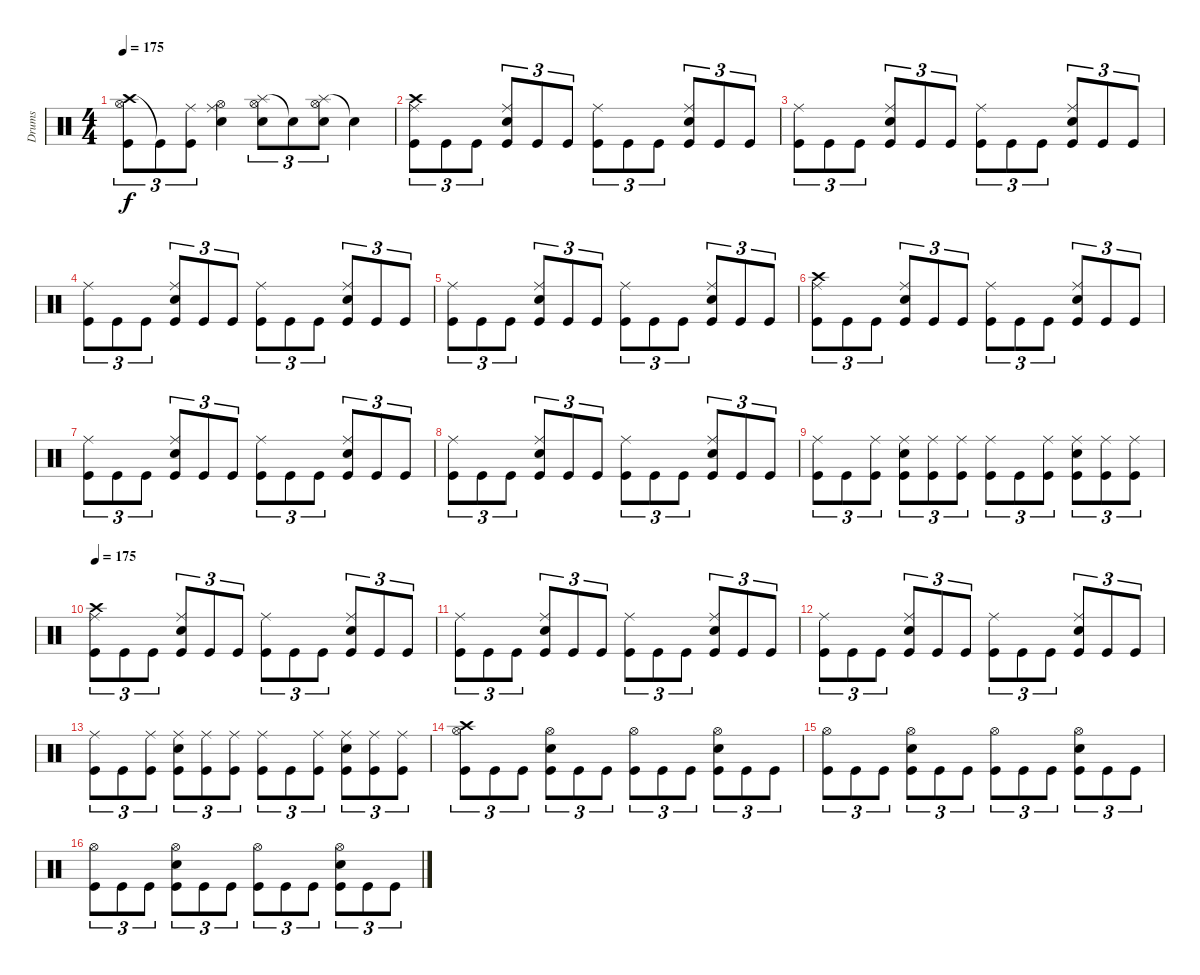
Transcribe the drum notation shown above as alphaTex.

\track ("Drums" "Drums") {instrument percussion}
\staff {score}
\articulation defaults
\ts (4 4)
\tempo 175
\clef neutral
\ks c
("Crash high (hit)" "Hi-Hat (open)" "Kick (hit)").8{tu (3 2) dy f} "Kick (hit)"{t}.8{tu (3 2)} ("Ride (middle)" "Kick (hit)").8{tu (3 2)} ("Ride (middle)" "Hi-Hat (open)" "Electric Snare (hit)").4 ("Splash (hit)" "Hi-Hat (open)" "Electric Snare (hit)").8{tu (3 2)} "Snare (hit)"{t}.8{tu (3 2)} ("Splash (hit)" "Hi-Hat (open)" "Electric Snare (hit)").8{tu (3 2)} "Snare (hit)"{t}.4 |
("Crash high (hit)" "Ride (middle)" "Kick (hit)").8{tu (3 2)} "Kick (hit)".8{tu (3 2)} "Kick (hit)".8{tu (3 2)} ("Ride (middle)" "Electric Snare (hit)" "Kick (hit)").8{tu (3 2)} "Kick (hit)".8{tu (3 2)} "Kick (hit)".8{tu (3 2)} ("Ride (middle)" "Kick (hit)").8{tu (3 2)} "Kick (hit)".8{tu (3 2)} "Kick (hit)".8{tu (3 2)} ("Ride (middle)" "Electric Snare (hit)" "Kick (hit)").8{tu (3 2)} "Kick (hit)".8{tu (3 2)} "Kick (hit)".8{tu (3 2)} |
("Ride (middle)" "Kick (hit)").8{tu (3 2)} "Kick (hit)".8{tu (3 2)} "Kick (hit)".8{tu (3 2)} ("Ride (middle)" "Electric Snare (hit)" "Kick (hit)").8{tu (3 2)} "Kick (hit)".8{tu (3 2)} "Kick (hit)".8{tu (3 2)} ("Ride (middle)" "Kick (hit)").8{tu (3 2)} "Kick (hit)".8{tu (3 2)} "Kick (hit)".8{tu (3 2)} ("Ride (middle)" "Electric Snare (hit)" "Kick (hit)").8{tu (3 2)} "Kick (hit)".8{tu (3 2)} "Kick (hit)".8{tu (3 2)} |
("Ride (middle)" "Kick (hit)").8{tu (3 2)} "Kick (hit)".8{tu (3 2)} "Kick (hit)".8{tu (3 2)} ("Ride (middle)" "Electric Snare (hit)" "Kick (hit)").8{tu (3 2)} "Kick (hit)".8{tu (3 2)} "Kick (hit)".8{tu (3 2)} ("Ride (middle)" "Kick (hit)").8{tu (3 2)} "Kick (hit)".8{tu (3 2)} "Kick (hit)".8{tu (3 2)} ("Ride (middle)" "Electric Snare (hit)" "Kick (hit)").8{tu (3 2)} "Kick (hit)".8{tu (3 2)} "Kick (hit)".8{tu (3 2)} |
("Ride (middle)" "Kick (hit)").8{tu (3 2)} "Kick (hit)".8{tu (3 2)} "Kick (hit)".8{tu (3 2)} ("Ride (middle)" "Electric Snare (hit)" "Kick (hit)").8{tu (3 2)} "Kick (hit)".8{tu (3 2)} "Kick (hit)".8{tu (3 2)} ("Ride (middle)" "Kick (hit)").8{tu (3 2)} "Kick (hit)".8{tu (3 2)} "Kick (hit)".8{tu (3 2)} ("Ride (middle)" "Electric Snare (hit)" "Kick (hit)").8{tu (3 2)} "Kick (hit)".8{tu (3 2)} "Kick (hit)".8{tu (3 2)} |
("Crash high (hit)" "Ride (middle)" "Kick (hit)").8{tu (3 2)} "Kick (hit)".8{tu (3 2)} "Kick (hit)".8{tu (3 2)} ("Ride (middle)" "Electric Snare (hit)" "Kick (hit)").8{tu (3 2)} "Kick (hit)".8{tu (3 2)} "Kick (hit)".8{tu (3 2)} ("Ride (middle)" "Kick (hit)").8{tu (3 2)} "Kick (hit)".8{tu (3 2)} "Kick (hit)".8{tu (3 2)} ("Ride (middle)" "Electric Snare (hit)" "Kick (hit)").8{tu (3 2)} "Kick (hit)".8{tu (3 2)} "Kick (hit)".8{tu (3 2)} |
("Ride (middle)" "Kick (hit)").8{tu (3 2)} "Kick (hit)".8{tu (3 2)} "Kick (hit)".8{tu (3 2)} ("Ride (middle)" "Electric Snare (hit)" "Kick (hit)").8{tu (3 2)} "Kick (hit)".8{tu (3 2)} "Kick (hit)".8{tu (3 2)} ("Ride (middle)" "Kick (hit)").8{tu (3 2)} "Kick (hit)".8{tu (3 2)} "Kick (hit)".8{tu (3 2)} ("Ride (middle)" "Electric Snare (hit)" "Kick (hit)").8{tu (3 2)} "Kick (hit)".8{tu (3 2)} "Kick (hit)".8{tu (3 2)} |
("Ride (middle)" "Kick (hit)").8{tu (3 2)} "Kick (hit)".8{tu (3 2)} "Kick (hit)".8{tu (3 2)} ("Ride (middle)" "Electric Snare (hit)" "Kick (hit)").8{tu (3 2)} "Kick (hit)".8{tu (3 2)} "Kick (hit)".8{tu (3 2)} ("Ride (middle)" "Kick (hit)").8{tu (3 2)} "Kick (hit)".8{tu (3 2)} "Kick (hit)".8{tu (3 2)} ("Ride (middle)" "Electric Snare (hit)" "Kick (hit)").8{tu (3 2)} "Kick (hit)".8{tu (3 2)} "Kick (hit)".8{tu (3 2)} |
("Ride (middle)" "Kick (hit)").8{tu (3 2)} "Kick (hit)".8{tu (3 2)} ("Ride (middle)" "Kick (hit)").8{tu (3 2)} ("Ride (middle)" "Electric Snare (hit)" "Kick (hit)").8{tu (3 2)} ("Ride (middle)" "Kick (hit)").8{tu (3 2)} ("Ride (middle)" "Kick (hit)").8{tu (3 2)} ("Ride (middle)" "Kick (hit)").8{tu (3 2)} "Kick (hit)".8{tu (3 2)} ("Ride (middle)" "Kick (hit)").8{tu (3 2)} ("Ride (middle)" "Electric Snare (hit)" "Kick (hit)").8{tu (3 2)} ("Ride (middle)" "Kick (hit)").8{tu (3 2)} ("Ride (middle)" "Kick (hit)").8{tu (3 2)} |
\tempo 175
("Crash high (hit)" "Ride (middle)" "Kick (hit)").8{tu (3 2)} "Kick (hit)".8{tu (3 2)} "Kick (hit)".8{tu (3 2)} ("Ride (middle)" "Electric Snare (hit)" "Kick (hit)").8{tu (3 2)} "Kick (hit)".8{tu (3 2)} "Kick (hit)".8{tu (3 2)} ("Ride (middle)" "Kick (hit)").8{tu (3 2)} "Kick (hit)".8{tu (3 2)} "Kick (hit)".8{tu (3 2)} ("Ride (middle)" "Electric Snare (hit)" "Kick (hit)").8{tu (3 2)} "Kick (hit)".8{tu (3 2)} "Kick (hit)".8{tu (3 2)} |
("Ride (middle)" "Kick (hit)").8{tu (3 2)} "Kick (hit)".8{tu (3 2)} "Kick (hit)".8{tu (3 2)} ("Ride (middle)" "Electric Snare (hit)" "Kick (hit)").8{tu (3 2)} "Kick (hit)".8{tu (3 2)} "Kick (hit)".8{tu (3 2)} ("Ride (middle)" "Kick (hit)").8{tu (3 2)} "Kick (hit)".8{tu (3 2)} "Kick (hit)".8{tu (3 2)} ("Ride (middle)" "Electric Snare (hit)" "Kick (hit)").8{tu (3 2)} "Kick (hit)".8{tu (3 2)} "Kick (hit)".8{tu (3 2)} |
("Ride (middle)" "Kick (hit)").8{tu (3 2)} "Kick (hit)".8{tu (3 2)} "Kick (hit)".8{tu (3 2)} ("Ride (middle)" "Electric Snare (hit)" "Kick (hit)").8{tu (3 2)} "Kick (hit)".8{tu (3 2)} "Kick (hit)".8{tu (3 2)} ("Ride (middle)" "Kick (hit)").8{tu (3 2)} "Kick (hit)".8{tu (3 2)} "Kick (hit)".8{tu (3 2)} ("Ride (middle)" "Electric Snare (hit)" "Kick (hit)").8{tu (3 2)} "Kick (hit)".8{tu (3 2)} "Kick (hit)".8{tu (3 2)} |
("Ride (middle)" "Kick (hit)").8{tu (3 2)} "Kick (hit)".8{tu (3 2)} ("Ride (middle)" "Kick (hit)").8{tu (3 2)} ("Ride (middle)" "Electric Snare (hit)" "Kick (hit)").8{tu (3 2)} ("Ride (middle)" "Kick (hit)").8{tu (3 2)} ("Ride (middle)" "Kick (hit)").8{tu (3 2)} ("Ride (middle)" "Kick (hit)").8{tu (3 2)} "Kick (hit)".8{tu (3 2)} ("Ride (middle)" "Kick (hit)").8{tu (3 2)} ("Ride (middle)" "Electric Snare (hit)" "Kick (hit)").8{tu (3 2)} ("Ride (middle)" "Kick (hit)").8{tu (3 2)} ("Ride (middle)" "Kick (hit)").8{tu (3 2)} |
("Crash high (hit)" "Hi-Hat (open)" "Kick (hit)").8{tu (3 2)} "Kick (hit)".8{tu (3 2)} "Kick (hit)".8{tu (3 2)} ("Hi-Hat (open)" "Electric Snare (hit)" "Kick (hit)").8{tu (3 2)} "Kick (hit)".8{tu (3 2)} "Kick (hit)".8{tu (3 2)} ("Hi-Hat (open)" "Kick (hit)").8{tu (3 2)} "Kick (hit)".8{tu (3 2)} "Kick (hit)".8{tu (3 2)} ("Hi-Hat (open)" "Electric Snare (hit)" "Kick (hit)").8{tu (3 2)} "Kick (hit)".8{tu (3 2)} "Kick (hit)".8{tu (3 2)} |
("Hi-Hat (open)" "Kick (hit)").8{tu (3 2)} "Kick (hit)".8{tu (3 2)} "Kick (hit)".8{tu (3 2)} ("Hi-Hat (open)" "Electric Snare (hit)" "Kick (hit)").8{tu (3 2)} "Kick (hit)".8{tu (3 2)} "Kick (hit)".8{tu (3 2)} ("Hi-Hat (open)" "Kick (hit)").8{tu (3 2)} "Kick (hit)".8{tu (3 2)} "Kick (hit)".8{tu (3 2)} ("Hi-Hat (open)" "Electric Snare (hit)" "Kick (hit)").8{tu (3 2)} "Kick (hit)".8{tu (3 2)} "Kick (hit)".8{tu (3 2)} |
("Hi-Hat (open)" "Kick (hit)").8{tu (3 2)} "Kick (hit)".8{tu (3 2)} "Kick (hit)".8{tu (3 2)} ("Hi-Hat (open)" "Electric Snare (hit)" "Kick (hit)").8{tu (3 2)} "Kick (hit)".8{tu (3 2)} "Kick (hit)".8{tu (3 2)} ("Hi-Hat (open)" "Kick (hit)").8{tu (3 2)} "Kick (hit)".8{tu (3 2)} "Kick (hit)".8{tu (3 2)} ("Hi-Hat (open)" "Electric Snare (hit)" "Kick (hit)").8{tu (3 2)} "Kick (hit)".8{tu (3 2)} "Kick (hit)".8{tu (3 2)}
